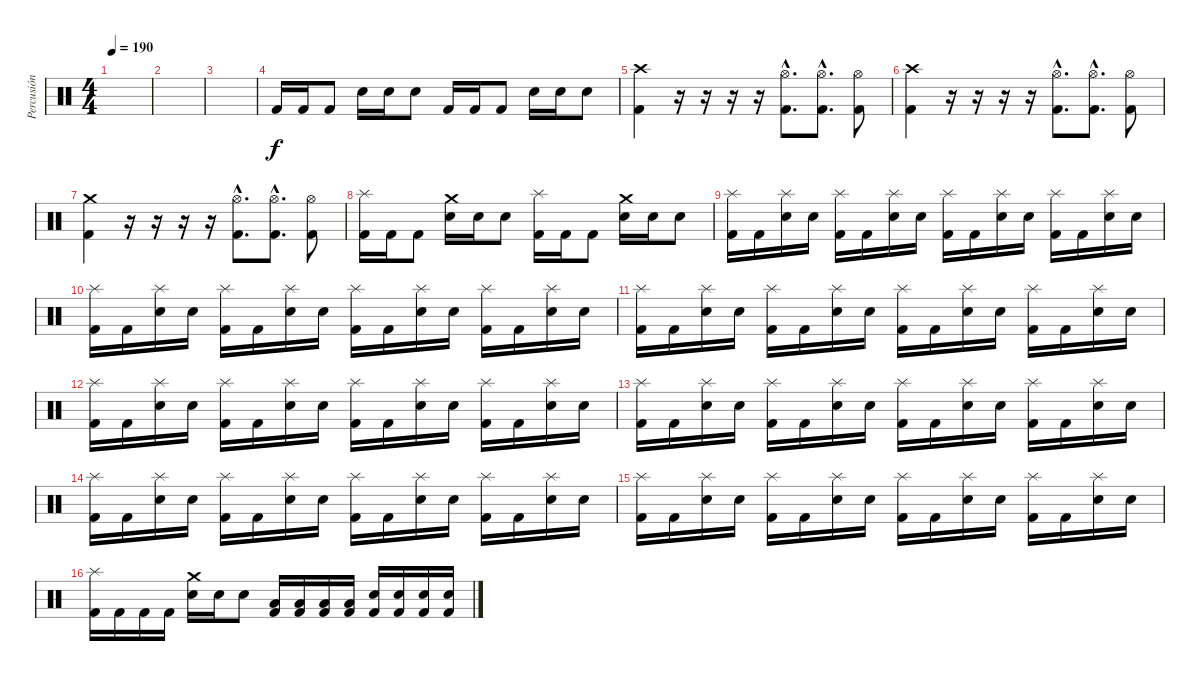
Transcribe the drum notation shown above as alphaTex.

\track ("Percusión" "Percusión") {instrument percussion}
\staff {score}
\articulation defaults
\ts (4 4)
\tempo 190
\clef neutral
\ks c
|
|
|
"Kick (hit) 2".16 "Kick (hit) 2".16 "Kick (hit) 2".8 "Snare (hit) 2".16 "Snare (hit) 2".16 "Snare (hit) 2".8 "Kick (hit) 2".16 "Kick (hit) 2".16 "Kick (hit) 2".8 "Snare (hit) 2".16 "Snare (hit) 2".16 "Snare (hit) 2".8 |
("Crash high (hit)" "Kick (hit) 2").4 r.16 r.16 r.16 r.16 ("Hi-Hat (open)"{hac} "Kick (hit) 2"{hac}).8{d} ("Hi-Hat (open)"{hac} "Kick (hit) 2"{hac}).8{d} ("Hi-Hat (open)" "Kick (hit) 2").8 |
("Crash high (hit)" "Kick (hit) 2").4 r.16 r.16 r.16 r.16 ("Hi-Hat (open)"{hac} "Kick (hit) 2"{hac}).8{d} ("Hi-Hat (open)"{hac} "Kick (hit) 2"{hac}).8{d} ("Hi-Hat (open)" "Kick (hit) 2").8 |
("Crash medium (hit)" "Kick (hit) 2").4 r.16 r.16 r.16 r.16 ("Hi-Hat (open)"{hac} "Kick (hit) 2"{hac}).8{d} ("Hi-Hat (open)"{hac} "Kick (hit) 2"{hac}).8{d} ("Hi-Hat (open)" "Kick (hit) 2").8 |
("Splash (hit)" "Kick (hit) 2").16 "Kick (hit) 2".16 "Kick (hit) 2".8 ("Crash medium (hit)" "Snare (hit) 2").16 "Snare (hit) 2".16 "Snare (hit) 2".8 ("Splash (hit)" "Kick (hit) 2").16 "Kick (hit) 2".16 "Kick (hit) 2".8 ("Crash medium (hit)" "Snare (hit) 2").16 "Snare (hit) 2".16 "Snare (hit) 2".8 |
("Splash (hit)" "Kick (hit) 2").16 "Kick (hit) 2".16 ("Splash (hit)" "Snare (hit) 2").16 "Snare (hit) 2".16 ("Splash (hit)" "Kick (hit) 2").16 "Kick (hit) 2".16 ("Splash (hit)" "Snare (hit) 2").16 "Snare (hit) 2".16 ("Splash (hit)" "Kick (hit) 2").16 "Kick (hit) 2".16 ("Splash (hit)" "Snare (hit) 2").16 "Snare (hit) 2".16 ("Splash (hit)" "Kick (hit) 2").16 "Kick (hit) 2".16 ("Splash (hit)" "Snare (hit) 2").16 "Snare (hit) 2".16 |
("Splash (hit)" "Kick (hit) 2").16 "Kick (hit) 2".16 ("Splash (hit)" "Snare (hit) 2").16 "Snare (hit) 2".16 ("Splash (hit)" "Kick (hit) 2").16 "Kick (hit) 2".16 ("Splash (hit)" "Snare (hit) 2").16 "Snare (hit) 2".16 ("Splash (hit)" "Kick (hit) 2").16 "Kick (hit) 2".16 ("Splash (hit)" "Snare (hit) 2").16 "Snare (hit) 2".16 ("Splash (hit)" "Kick (hit) 2").16 "Kick (hit) 2".16 ("Splash (hit)" "Snare (hit) 2").16 "Snare (hit) 2".16 |
("Splash (hit)" "Kick (hit) 2").16 "Kick (hit) 2".16 ("Splash (hit)" "Snare (hit) 2").16 "Snare (hit) 2".16 ("Splash (hit)" "Kick (hit) 2").16 "Kick (hit) 2".16 ("Splash (hit)" "Snare (hit) 2").16 "Snare (hit) 2".16 ("Splash (hit)" "Kick (hit) 2").16 "Kick (hit) 2".16 ("Splash (hit)" "Snare (hit) 2").16 "Snare (hit) 2".16 ("Splash (hit)" "Kick (hit) 2").16 "Kick (hit) 2".16 ("Splash (hit)" "Snare (hit) 2").16 "Snare (hit) 2".16 |
("Splash (hit)" "Kick (hit) 2").16 "Kick (hit) 2".16 ("Splash (hit)" "Snare (hit) 2").16 "Snare (hit) 2".16 ("Splash (hit)" "Kick (hit) 2").16 "Kick (hit) 2".16 ("Splash (hit)" "Snare (hit) 2").16 "Snare (hit) 2".16 ("Splash (hit)" "Kick (hit) 2").16 "Kick (hit) 2".16 ("Splash (hit)" "Snare (hit) 2").16 "Snare (hit) 2".16 ("Splash (hit)" "Kick (hit) 2").16 "Kick (hit) 2".16 ("Splash (hit)" "Snare (hit) 2").16 "Snare (hit) 2".16 |
("Splash (hit)" "Kick (hit) 2").16 "Kick (hit) 2".16 ("Splash (hit)" "Snare (hit) 2").16 "Snare (hit) 2".16 ("Splash (hit)" "Kick (hit) 2").16 "Kick (hit) 2".16 ("Splash (hit)" "Snare (hit) 2").16 "Snare (hit) 2".16 ("Splash (hit)" "Kick (hit) 2").16 "Kick (hit) 2".16 ("Splash (hit)" "Snare (hit) 2").16 "Snare (hit) 2".16 ("Splash (hit)" "Kick (hit) 2").16 "Kick (hit) 2".16 ("Splash (hit)" "Snare (hit) 2").16 "Snare (hit) 2".16 |
("Splash (hit)" "Kick (hit) 2").16 "Kick (hit) 2".16 ("Splash (hit)" "Snare (hit) 2").16 "Snare (hit) 2".16 ("Splash (hit)" "Kick (hit) 2").16 "Kick (hit) 2".16 ("Splash (hit)" "Snare (hit) 2").16 "Snare (hit) 2".16 ("Splash (hit)" "Kick (hit) 2").16 "Kick (hit) 2".16 ("Splash (hit)" "Snare (hit) 2").16 "Snare (hit) 2".16 ("Splash (hit)" "Kick (hit) 2").16 "Kick (hit) 2".16 ("Splash (hit)" "Snare (hit) 2").16 "Snare (hit) 2".16 |
("Splash (hit)" "Kick (hit) 2").16 "Kick (hit) 2".16 ("Splash (hit)" "Snare (hit) 2").16 "Snare (hit) 2".16 ("Splash (hit)" "Kick (hit) 2").16 "Kick (hit) 2".16 ("Splash (hit)" "Snare (hit) 2").16 "Snare (hit) 2".16 ("Splash (hit)" "Kick (hit) 2").16 "Kick (hit) 2".16 ("Splash (hit)" "Snare (hit) 2").16 "Snare (hit) 2".16 ("Splash (hit)" "Kick (hit) 2").16 "Kick (hit) 2".16 ("Splash (hit)" "Snare (hit) 2").16 "Snare (hit) 2".16 |
("Splash (hit)" "Kick (hit) 2").16 "Kick (hit) 2".16 "Kick (hit) 2".16 "Kick (hit) 2".16 ("Crash medium (hit)" "Snare (hit) 2").16 "Snare (hit) 2".16 "Snare (hit) 2".8 ("Low Tom (hit)" "Kick (hit) 2").16 ("Low Tom (hit)" "Kick (hit) 2").16 ("Low Tom (hit)" "Kick (hit) 2").16 ("Low Tom (hit)" "Kick (hit) 2").16 ("Snare (hit) 2" "Kick (hit) 2").16 ("Snare (hit) 2" "Kick (hit) 2").16 ("Snare (hit) 2" "Kick (hit) 2").16 ("Snare (hit) 2" "Kick (hit) 2").16
